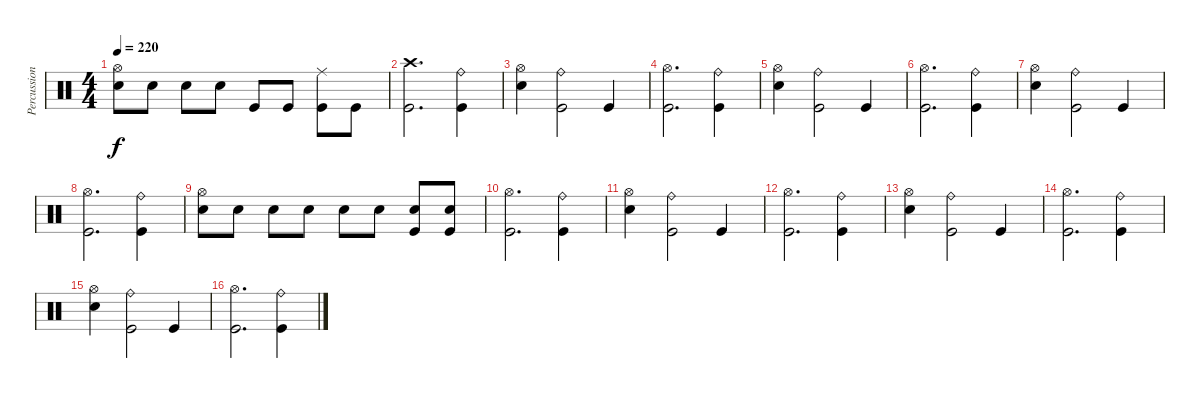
\track ("Percussion" "Percussion") {instrument percussion}
\staff {score}
\articulation defaults
\ts (4 4)
\tempo 220
\clef neutral
\ks c
("Snare (hit) 2" "Hi-Hat (open)").8{dy f} "Snare (hit) 2".8 "Snare (hit) 2".8 "Snare (hit) 2".8 "Kick (hit)".8 "Kick (hit)".8 ("Kick (hit)" "Ride (middle)").8 "Kick (hit)".8 |
("Kick (hit)" "Crash high (hit)").2{d} ("Kick (hit)" "Ride (bell)").4 |
("Snare (hit) 2" "Hi-Hat (open)").4 ("Kick (hit)" "Ride (bell)").2 "Kick (hit)".4 |
("Kick (hit)" "Hi-Hat (open)").2{d} ("Kick (hit)" "Ride (bell)").4 |
("Snare (hit) 2" "Hi-Hat (open)").4 ("Kick (hit)" "Ride (bell)").2 "Kick (hit)".4 |
("Kick (hit)" "Hi-Hat (open)").2{d} ("Kick (hit)" "Ride (bell)").4 |
("Snare (hit) 2" "Hi-Hat (open)").4 ("Kick (hit)" "Ride (bell)").2 "Kick (hit)".4 |
("Kick (hit)" "Hi-Hat (open)").2{d} ("Kick (hit)" "Ride (bell)").4 |
("Snare (hit) 2" "Hi-Hat (open)").8 "Snare (hit) 2".8 "Snare (hit) 2".8 "Snare (hit) 2".8 "Snare (hit) 2".8 "Snare (hit) 2".8 ("Kick (hit)" "Snare (hit) 2").8 ("Kick (hit)" "Snare (hit) 2").8 |
("Kick (hit)" "Hi-Hat (open)").2{d} ("Kick (hit)" "Ride (bell)").4 |
("Snare (hit) 2" "Hi-Hat (open)").4 ("Kick (hit)" "Ride (bell)").2 "Kick (hit)".4 |
("Kick (hit)" "Hi-Hat (open)").2{d} ("Kick (hit)" "Ride (bell)").4 |
("Snare (hit) 2" "Hi-Hat (open)").4 ("Kick (hit)" "Ride (bell)").2 "Kick (hit)".4 |
("Kick (hit)" "Hi-Hat (open)").2{d} ("Kick (hit)" "Ride (bell)").4 |
("Snare (hit) 2" "Hi-Hat (open)").4 ("Kick (hit)" "Ride (bell)").2 "Kick (hit)".4 |
("Kick (hit)" "Hi-Hat (open)").2{d} ("Kick (hit)" "Ride (bell)").4
